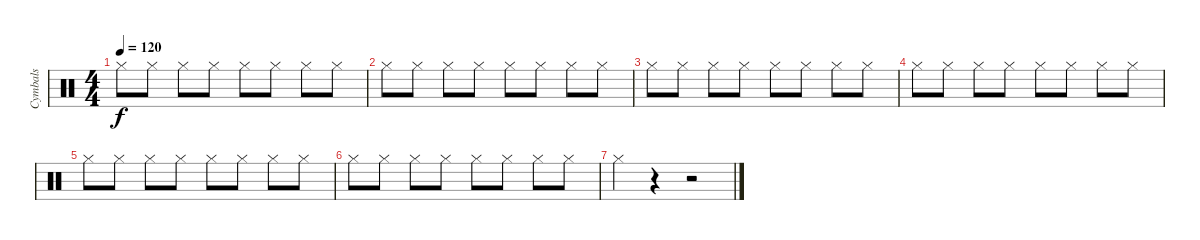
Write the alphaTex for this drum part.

\track ("Cymbals" "Cymbals") {instrument percussion}
\staff {score}
\articulation defaults
\ts (4 4)
\tempo 120
\clef neutral
\ks c "Hi-Hat (closed)".8{dy f} "Hi-Hat (closed)".8 "Hi-Hat (closed)".8 "Hi-Hat (closed)".8 "Hi-Hat (closed)".8 "Hi-Hat (closed)".8 "Hi-Hat (closed)".8 "Hi-Hat (closed)".8
|
"Hi-Hat (closed)".8 "Hi-Hat (closed)".8 "Hi-Hat (closed)".8 "Hi-Hat (closed)".8 "Hi-Hat (closed)".8 "Hi-Hat (closed)".8 "Hi-Hat (closed)".8 "Hi-Hat (closed)".8 |
"Hi-Hat (closed)".8 "Hi-Hat (closed)".8 "Hi-Hat (closed)".8 "Hi-Hat (closed)".8 "Hi-Hat (closed)".8 "Hi-Hat (closed)".8 "Hi-Hat (closed)".8 "Hi-Hat (closed)".8 |
"Hi-Hat (closed)".8 "Hi-Hat (closed)".8 "Hi-Hat (closed)".8 "Hi-Hat (closed)".8 "Hi-Hat (closed)".8 "Hi-Hat (closed)".8 "Hi-Hat (closed)".8 "Hi-Hat (closed)".8 |
"Hi-Hat (closed)".8 "Hi-Hat (closed)".8 "Hi-Hat (closed)".8 "Hi-Hat (closed)".8 "Hi-Hat (closed)".8 "Hi-Hat (closed)".8 "Hi-Hat (closed)".8 "Hi-Hat (closed)".8 |
"Hi-Hat (closed)".8 "Hi-Hat (closed)".8 "Hi-Hat (closed)".8 "Hi-Hat (closed)".8 "Hi-Hat (closed)".8 "Hi-Hat (closed)".8 "Hi-Hat (closed)".8 "Hi-Hat (closed)".8 |
"Hi-Hat (closed)".4 r.4 r.2
